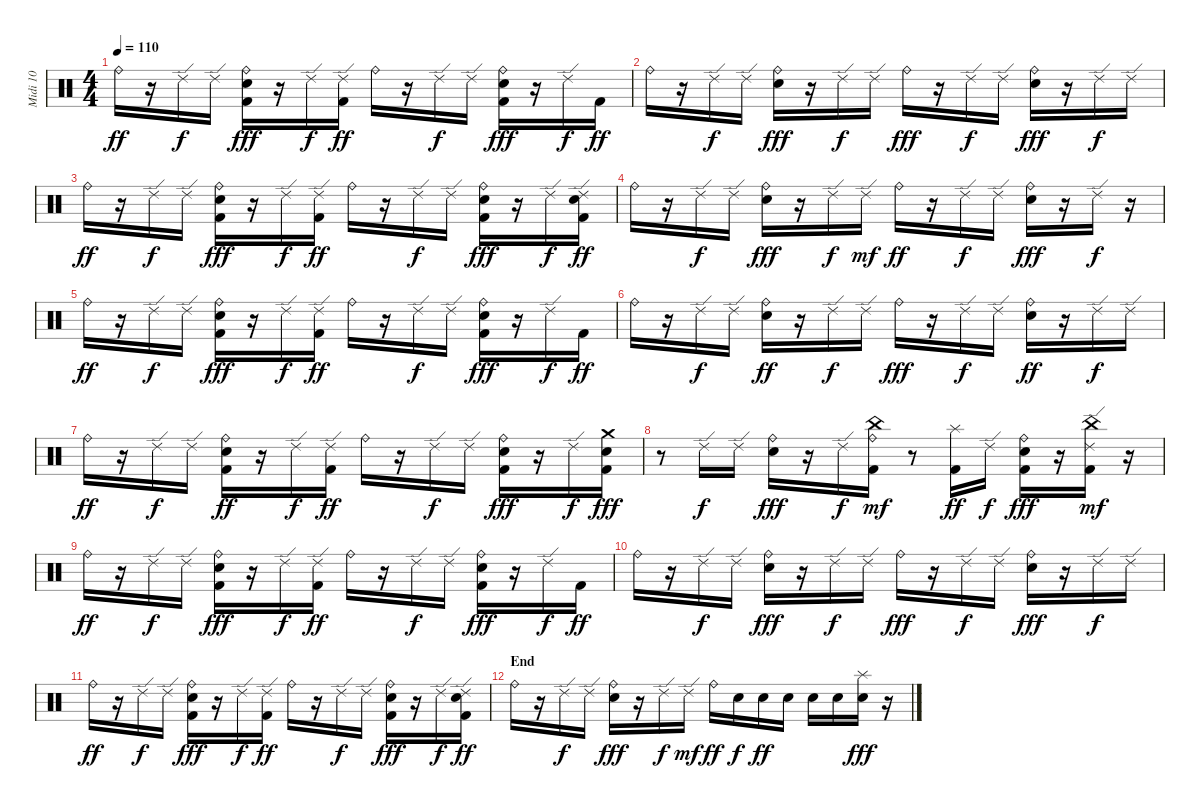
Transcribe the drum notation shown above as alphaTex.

\track ("Midi 10" "Midi 10") {instrument percussion}
\staff {score}
\articulation defaults
\ts (4 4)
\tempo 110
\clef neutral
\ks c "Ride (bell)".16{dy ff}
r.16 "Ride (edge) 2".16{dy f} "Ride (edge) 2".16 ("Ride (bell)" "Kick (hit) 2" "Snare (hit) 2").16{dy fff} r.16 "Ride (edge) 2".16{dy f} ("Ride (edge) 2" "Kick (hit) 2").16{dy ff} "Ride (bell)".16 r.16 "Ride (edge) 2".16{dy f} "Ride (edge) 2".16 ("Ride (bell)" "Snare (hit) 2" "Kick (hit) 2").16{dy fff} r.16 "Ride (edge) 2".16{dy f} "Kick (hit) 2".16{dy ff} |
"Ride (bell)".16 r.16 "Ride (edge) 2".16{dy f} "Ride (edge) 2".16 ("Ride (bell)" "Snare (hit) 2").16{dy fff} r.16 "Ride (edge) 2".16{dy f} "Ride (edge) 2".16 "Ride (bell)".16{dy fff} r.16 "Ride (edge) 2".16{dy f} "Ride (edge) 2".16 ("Ride (bell)" "Snare (hit) 2").16{dy fff} r.16 "Ride (edge) 2".16{dy f} "Ride (edge) 2".16 |
"Ride (bell)".16{dy ff} r.16 "Ride (edge) 2".16{dy f} "Ride (edge) 2".16 ("Kick (hit) 2" "Ride (bell)" "Snare (hit) 2").16{dy fff} r.16 "Ride (edge) 2".16{dy f} ("Kick (hit) 2" "Ride (edge) 2").16{dy ff} "Ride (bell)".16 r.16 "Ride (edge) 2".16{dy f} "Ride (edge) 2".16 ("Ride (bell)" "Kick (hit) 2" "Snare (hit) 2").16{dy fff} r.16 "Ride (edge) 2".16{dy f} ("Ride (edge) 2" "Snare (hit) 2" "Kick (hit) 2").16{dy ff} |
"Ride (bell)".16 r.16 "Ride (edge) 2".16{dy f} "Ride (edge) 2".16 ("Ride (bell)" "Snare (hit) 2").16{dy fff} r.16 "Ride (edge) 2".16{dy f} "Ride (edge) 2".16{dy mf} "Ride (bell)".16{dy ff} r.16 "Ride (edge) 2".16{dy f} "Ride (edge) 2".16 ("Ride (bell)" "Snare (hit) 2").16{dy fff} r.16 "Ride (edge) 2".16{dy f} r.16 |
"Ride (bell)".16{dy ff} r.16 "Ride (edge) 2".16{dy f} "Ride (edge) 2".16 ("Kick (hit) 2" "Ride (bell)" "Snare (hit) 2").16{dy fff} r.16 "Ride (edge) 2".16{dy f} ("Ride (edge) 2" "Kick (hit) 2").16{dy ff} "Ride (bell)".16 r.16 "Ride (edge) 2".16{dy f} "Ride (edge) 2".16 ("Ride (bell)" "Kick (hit) 2" "Snare (hit) 2").16{dy fff} r.16 "Ride (edge) 2".16{dy f} "Kick (hit) 2".16{dy ff} |
"Ride (bell)".16 r.16 "Ride (edge) 2".16{dy f} "Ride (edge) 2".16 ("Snare (hit) 2" "Ride (bell)").16{dy ff} r.16 "Ride (edge) 2".16{dy f} "Ride (edge) 2".16 "Ride (bell)".16{dy fff} r.16 "Ride (edge) 2".16{dy f} "Ride (edge) 2".16 ("Snare (hit) 2" "Ride (bell)").16{dy ff} r.16 "Ride (edge) 2".16{dy f} "Ride (edge) 2".16 |
"Ride (bell)".16{dy ff} r.16 "Ride (edge) 2".16{dy f} "Ride (edge) 2".16 ("Kick (hit) 2" "Snare (hit) 2" "Ride (bell)").16{dy ff} r.16 "Ride (edge) 2".16{dy f} ("Kick (hit) 2" "Ride (edge) 2").16{dy ff} "Ride (bell)".16 r.16 "Ride (edge) 2".16{dy f} "Ride (edge) 2".16 ("Kick (hit) 2" "Ride (bell)" "Snare (hit) 2").16{dy fff} r.16 "Ride (edge) 2".16{dy f} ("Kick (hit) 2" "Snare (hit) 2" "Crash medium (hit)").16{dy fff} |
r.8 "Ride (edge) 2".16{dy f} "Ride (edge) 2".16 ("Ride (bell)" "Snare (hit) 2").16{dy fff} r.16 "Ride (edge) 2".16{dy f} ("Ride (bell)" "Kick (hit) 2" "China (hit)").16{dy mf} r.8 ("Kick (hit) 2" "Splash (hit)").16{dy ff} "Ride (edge) 2".16{dy f} ("Ride (bell)" "Kick (hit) 2" "Snare (hit) 2").16{dy fff} r.16 ("Kick (hit) 2" "China (hit)" "Ride (edge) 2").16{dy mf} r.16 |
"Ride (bell)".16{dy ff} r.16 "Ride (edge) 2".16{dy f} "Ride (edge) 2".16 ("Ride (bell)" "Kick (hit) 2" "Snare (hit) 2").16{dy fff} r.16 "Ride (edge) 2".16{dy f} ("Ride (edge) 2" "Kick (hit) 2").16{dy ff} "Ride (bell)".16 r.16 "Ride (edge) 2".16{dy f} "Ride (edge) 2".16 ("Ride (bell)" "Snare (hit) 2" "Kick (hit) 2").16{dy fff} r.16 "Ride (edge) 2".16{dy f} "Kick (hit) 2".16{dy ff} |
"Ride (bell)".16 r.16 "Ride (edge) 2".16{dy f} "Ride (edge) 2".16 ("Ride (bell)" "Snare (hit) 2").16{dy fff} r.16 "Ride (edge) 2".16{dy f} "Ride (edge) 2".16 "Ride (bell)".16{dy fff} r.16 "Ride (edge) 2".16{dy f} "Ride (edge) 2".16 ("Ride (bell)" "Snare (hit) 2").16{dy fff} r.16 "Ride (edge) 2".16{dy f} "Ride (edge) 2".16 |
"Ride (bell)".16{dy ff} r.16 "Ride (edge) 2".16{dy f} "Ride (edge) 2".16 ("Kick (hit) 2" "Ride (bell)" "Snare (hit) 2").16{dy fff} r.16 "Ride (edge) 2".16{dy f} ("Kick (hit) 2" "Ride (edge) 2").16{dy ff} "Ride (bell)".16 r.16 "Ride (edge) 2".16{dy f} "Ride (edge) 2".16 ("Ride (bell)" "Kick (hit) 2" "Snare (hit) 2").16{dy fff} r.16 "Ride (edge) 2".16{dy f} ("Ride (edge) 2" "Snare (hit) 2" "Kick (hit) 2").16{dy ff} |
\section ("" "End")
"Ride (bell)".16 r.16 "Ride (edge) 2".16{dy f} "Ride (edge) 2".16 ("Ride (bell)" "Snare (hit) 2").16{dy fff} r.16 "Ride (edge) 2".16{dy f} "Ride (edge) 2".16{dy mf} "Ride (bell)".16{dy ff} "Snare (hit) 2".16{dy f} "Snare (hit) 2".16{dy ff} "Snare (hit) 2".16 "Snare (hit) 2".16 "Snare (hit) 2".16 ("Splash (hit)" "Snare (hit) 2").16{dy fff} r.16
